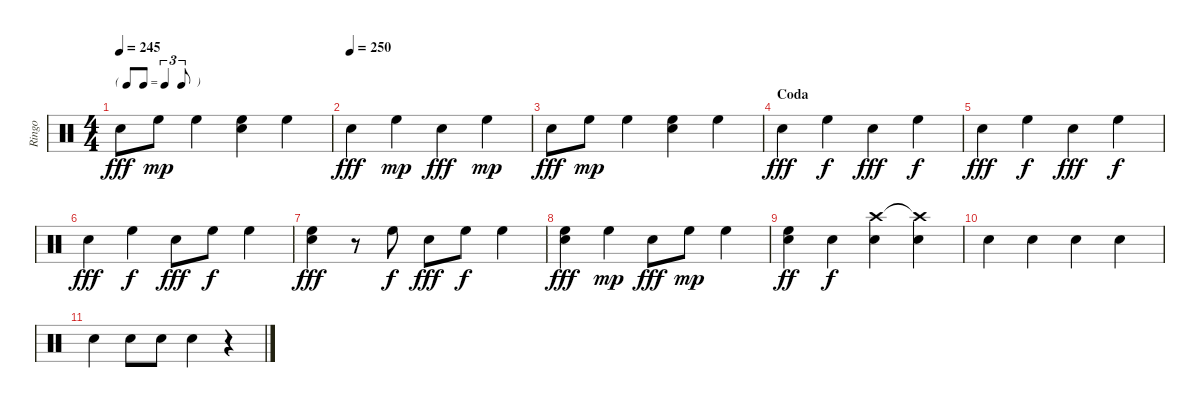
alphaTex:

\track ("Ringo" "Ringo") {instrument percussion}
\staff {score}
\articulation defaults
\ts (4 4)
\tf triplet8th
\tempo 245
\clef neutral
\ks c "Hand Clap (hit)".8{dy fff} "High Floor Tom (hit)".8{dy mp} "High Floor Tom (hit)".4
("Hand Clap (hit)" "High Floor Tom (hit)").4 "High Floor Tom (hit)".4 |
\tempo (250)
"Hand Clap (hit)".4{dy fff} "High Floor Tom (hit)".4{dy mp} "Hand Clap (hit)".4{dy fff} "High Floor Tom (hit)".4{dy mp} |
"Hand Clap (hit)".8{dy fff} "High Floor Tom (hit)".8{dy mp} "High Floor Tom (hit)".4 ("Hand Clap (hit)" "High Floor Tom (hit)").4 "High Floor Tom (hit)".4 |
\section ("" "Coda")
"Hand Clap (hit)".4{dy fff} "High Floor Tom (hit)".4{dy f} "Hand Clap (hit)".4{dy fff} "High Floor Tom (hit)".4{dy f} |
"Hand Clap (hit)".4{dy fff} "High Floor Tom (hit)".4{dy f} "Hand Clap (hit)".4{dy fff} "High Floor Tom (hit)".4{dy f} |
"Hand Clap (hit)".4{dy fff} "High Floor Tom (hit)".4{dy f} "Hand Clap (hit)".8{dy fff} "High Floor Tom (hit)".8{dy f} "High Floor Tom (hit)".4 |
("Hand Clap (hit)" "High Floor Tom (hit)").4{dy fff} r.8 "High Floor Tom (hit)".8{dy f} "Hand Clap (hit)".8{dy fff} "High Floor Tom (hit)".8{dy f} "High Floor Tom (hit)".4 |
("Hand Clap (hit)" "High Floor Tom (hit)").4{dy fff} "High Floor Tom (hit)".4{dy mp} "Hand Clap (hit)".8{dy fff} "High Floor Tom (hit)".8{dy mp} "High Floor Tom (hit)".4 |
("Hand Clap (hit)" "High Floor Tom (hit)").4{dy ff} "Hand Clap (hit)".4{dy f} ("Hand Clap (hit)" "Crash high (hit)").4 ("Hand Clap (hit)" "Crash high (hit)"{t}).4 |
"Hand Clap (hit)".4{volume 10} "Hand Clap (hit)".4{volume 8} "Hand Clap (hit)".4{volume 6} "Hand Clap (hit)".4{volume 4} |
"Hand Clap (hit)".4 "Hand Clap (hit)".8{volume 3} "Hand Clap (hit)".8 "Hand Clap (hit)".4{volume 2} r.4
